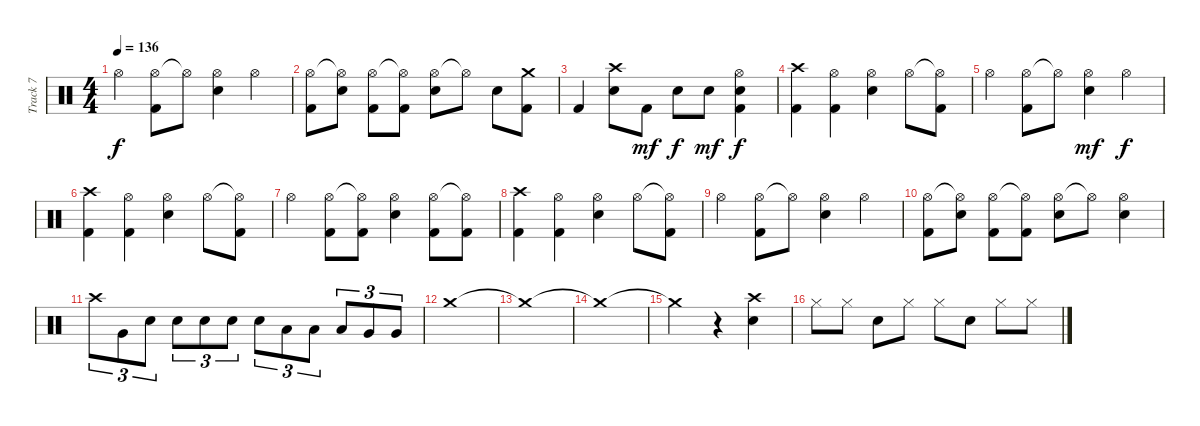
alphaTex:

\track ("Track 7" "Track 7") {instrument percussion}
\staff {score}
\articulation defaults
\ts (4 4)
\tempo 136
\clef neutral
\ks c "Hi-Hat (open)".4{dy f}
("Hi-Hat (open)" "Kick (hit) 2").8 "Hi-Hat (open)"{t}.8 ("Hi-Hat (open)" "Electric Snare (hit)").4 "Hi-Hat (open)".4 |
("Hi-Hat (open)" "Kick (hit) 2").8 ("Hi-Hat (open)"{t} "Electric Snare (hit)").8 ("Hi-Hat (open)" "Kick (hit) 2").8 ("Hi-Hat (open)"{t} "Kick (hit) 2").8 ("Hi-Hat (open)" "Electric Snare (hit)").8 "Hi-Hat (open)"{t}.8 "Electric Snare (hit)".8 ("Crash medium (hit)" "Kick (hit) 2").8 |
"Kick (hit) 2".4 ("Crash high (hit)" "Electric Snare (hit)").8 "Kick (hit) 2".8{dy mf} "Electric Snare (hit)".8{dy f} "Electric Snare (hit)".8{dy mf} ("Hi-Hat (open)" "Electric Snare (hit)" "Kick (hit) 2").4{dy f} |
("Crash high (hit)" "Kick (hit) 2").4 ("Hi-Hat (open)" "Kick (hit) 2").4 ("Hi-Hat (open)" "Electric Snare (hit)").4 "Hi-Hat (open)".8 ("Hi-Hat (open)"{t} "Kick (hit) 2").8 |
"Hi-Hat (open)".4 ("Hi-Hat (open)" "Kick (hit) 2").8 "Hi-Hat (open)"{t}.8 ("Hi-Hat (open)" "Electric Snare (hit)").4{dy mf} "Hi-Hat (open)".4{dy f} |
("Crash high (hit)" "Kick (hit) 2").4 ("Hi-Hat (open)" "Kick (hit) 2").4 ("Hi-Hat (open)" "Electric Snare (hit)").4 "Hi-Hat (open)".8 ("Hi-Hat (open)"{t} "Kick (hit) 2").8 |
"Hi-Hat (open)".4 ("Hi-Hat (open)" "Kick (hit) 2").8 ("Hi-Hat (open)"{t} "Kick (hit) 2").8 ("Hi-Hat (open)" "Electric Snare (hit)").4 ("Hi-Hat (open)" "Kick (hit) 2").8 ("Hi-Hat (open)"{t} "Kick (hit) 2").8 |
("Crash high (hit)" "Kick (hit) 2").4 ("Hi-Hat (open)" "Kick (hit) 2").4 ("Hi-Hat (open)" "Electric Snare (hit)").4 "Hi-Hat (open)".8 ("Hi-Hat (open)"{t} "Kick (hit) 2").8 |
"Hi-Hat (open)".4 ("Hi-Hat (open)" "Kick (hit) 2").8 "Hi-Hat (open)"{t}.8 ("Hi-Hat (open)" "Electric Snare (hit)").4 "Hi-Hat (open)".4 |
("Hi-Hat (open)" "Kick (hit) 2").8 ("Hi-Hat (open)"{t} "Electric Snare (hit)").8 ("Hi-Hat (open)" "Kick (hit) 2").8 ("Hi-Hat (open)"{t} "Kick (hit) 2").8 ("Hi-Hat (open)" "Electric Snare (hit)").8 "Hi-Hat (open)"{t}.8 ("Hi-Hat (open)" "Electric Snare (hit)").4 |
"Crash high (hit)".8{tu (3 2)} "Very Low Tom (hit)".8{tu (3 2)} "Electric Snare (hit)".8{tu (3 2)} "Electric Snare (hit)".8{tu (3 2)} "Electric Snare (hit)".8{tu (3 2)} "Electric Snare (hit)".8{tu (3 2)} "Electric Snare (hit)".8{tu (3 2)} "Low Tom (hit)".8{tu (3 2)} "Low Tom (hit)".8{tu (3 2)} "Low Tom (hit)".8{tu (3 2)} "Very Low Tom (hit)".8{tu (3 2)} "Very Low Tom (hit)".8{tu (3 2)} |
"Crash medium (hit)".1 |
"Crash medium (hit)"{t}.1 |
"Crash medium (hit)"{t}.1 |
"Crash medium (hit)"{t}.2 r.4 ("Crash high (hit)" "Electric Snare (hit)").4 |
"Hi-Hat (closed)".8 "Hi-Hat (closed)".8 "Electric Snare (hit)".8 "Hi-Hat (closed)".8 "Hi-Hat (closed)".8 "Electric Snare (hit)".8 "Hi-Hat (closed)".8 "Hi-Hat (closed)".8
